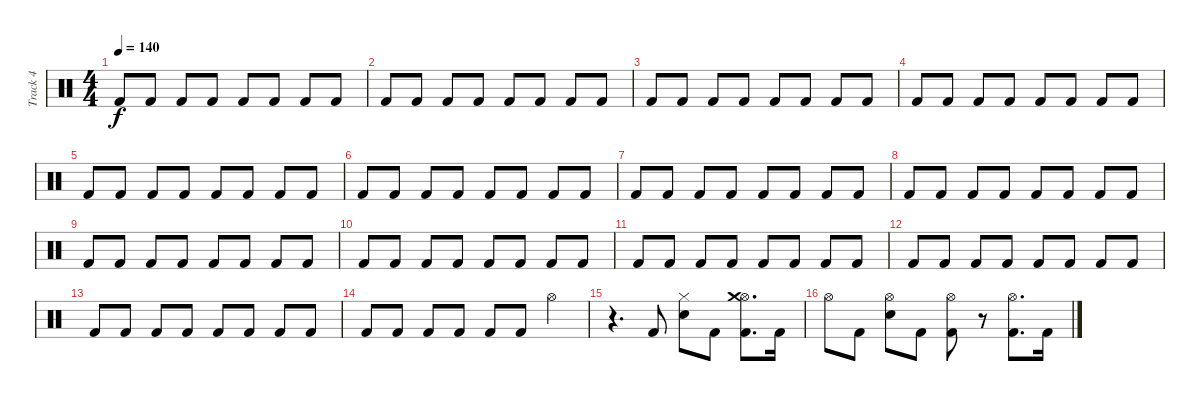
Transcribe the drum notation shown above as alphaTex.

\track ("Track 4" "Track 4") {instrument percussion}
\staff {score}
\articulation defaults
\ts (4 4)
\tempo 140
\clef neutral
\ks c "Kick (hit) 2".8{dy f} "Kick (hit) 2".8 "Kick (hit) 2".8 "Kick (hit) 2".8 "Kick (hit) 2".8 "Kick (hit) 2".8 "Kick (hit) 2".8 "Kick (hit) 2".8
|
"Kick (hit) 2".8 "Kick (hit) 2".8 "Kick (hit) 2".8 "Kick (hit) 2".8 "Kick (hit) 2".8 "Kick (hit) 2".8 "Kick (hit) 2".8 "Kick (hit) 2".8 |
"Kick (hit) 2".8 "Kick (hit) 2".8 "Kick (hit) 2".8 "Kick (hit) 2".8 "Kick (hit) 2".8 "Kick (hit) 2".8 "Kick (hit) 2".8 "Kick (hit) 2".8 |
"Kick (hit) 2".8 "Kick (hit) 2".8 "Kick (hit) 2".8 "Kick (hit) 2".8 "Kick (hit) 2".8 "Kick (hit) 2".8 "Kick (hit) 2".8 "Kick (hit) 2".8 |
"Kick (hit) 2".8 "Kick (hit) 2".8 "Kick (hit) 2".8 "Kick (hit) 2".8 "Kick (hit) 2".8 "Kick (hit) 2".8 "Kick (hit) 2".8 "Kick (hit) 2".8 |
"Kick (hit) 2".8 "Kick (hit) 2".8 "Kick (hit) 2".8 "Kick (hit) 2".8 "Kick (hit) 2".8 "Kick (hit) 2".8 "Kick (hit) 2".8 "Kick (hit) 2".8 |
"Kick (hit) 2".8 "Kick (hit) 2".8 "Kick (hit) 2".8 "Kick (hit) 2".8 "Kick (hit) 2".8 "Kick (hit) 2".8 "Kick (hit) 2".8 "Kick (hit) 2".8 |
"Kick (hit) 2".8 "Kick (hit) 2".8 "Kick (hit) 2".8 "Kick (hit) 2".8 "Kick (hit) 2".8 "Kick (hit) 2".8 "Kick (hit) 2".8 "Kick (hit) 2".8 |
"Kick (hit) 2".8 "Kick (hit) 2".8 "Kick (hit) 2".8 "Kick (hit) 2".8 "Kick (hit) 2".8 "Kick (hit) 2".8 "Kick (hit) 2".8 "Kick (hit) 2".8 |
"Kick (hit) 2".8 "Kick (hit) 2".8 "Kick (hit) 2".8 "Kick (hit) 2".8 "Kick (hit) 2".8 "Kick (hit) 2".8 "Kick (hit) 2".8 "Kick (hit) 2".8 |
"Kick (hit) 2".8 "Kick (hit) 2".8 "Kick (hit) 2".8 "Kick (hit) 2".8 "Kick (hit) 2".8 "Kick (hit) 2".8 "Kick (hit) 2".8 "Kick (hit) 2".8 |
"Kick (hit) 2".8 "Kick (hit) 2".8 "Kick (hit) 2".8 "Kick (hit) 2".8 "Kick (hit) 2".8 "Kick (hit) 2".8 "Kick (hit) 2".8 "Kick (hit) 2".8 |
"Kick (hit) 2".8 "Kick (hit) 2".8 "Kick (hit) 2".8 "Kick (hit) 2".8 "Kick (hit) 2".8 "Kick (hit) 2".8 "Kick (hit) 2".8 "Kick (hit) 2".8 |
"Kick (hit) 2".8 "Kick (hit) 2".8 "Kick (hit) 2".8 "Kick (hit) 2".8 "Kick (hit) 2".8 "Kick (hit) 2".8 "Hi-Hat (open)".4 |
r.4{d} "Kick (hit) 2".8 ("Hi-Hat (closed)" "Snare (hit) 2").8 "Kick (hit) 2".8 ("Hi-Hat (open)" "Crash medium (hit)" "Kick (hit) 2").8{d} "Kick (hit) 2".16 |
"Hi-Hat (open)".8 "Kick (hit) 2".8 ("Hi-Hat (open)" "Snare (hit) 2").8 "Kick (hit) 2".8 ("Hi-Hat (open)" "Kick (hit) 2").8 r.8 ("Hi-Hat (open)" "Kick (hit) 2").8{d} "Kick (hit) 2".16
